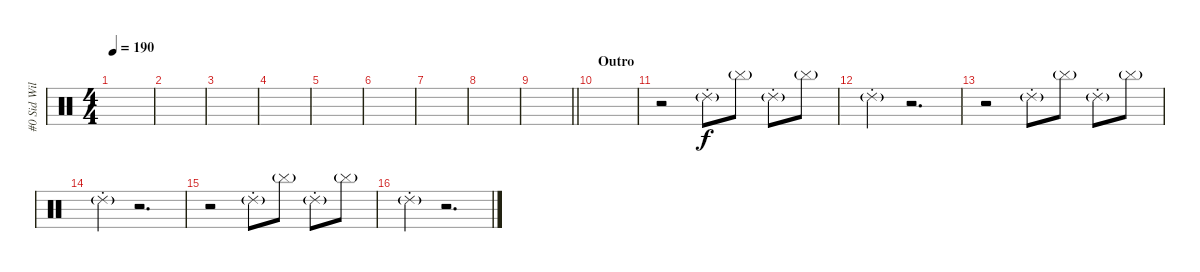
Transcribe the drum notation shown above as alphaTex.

\track ("#0 Sid Wilson" "#0 Sid Wil") {instrument percussion}
\staff {score}
\articulation defaults
\ts (4 4)
\tempo 190
\clef neutral
\ks c
|
|
|
|
|
|
|
|
\barLineRight lightlight
|
\section ("" "Outro")
|
r.2 "Ride (choke) 2"{g}.8 "Cymbal (hit)"{g}.8 "Ride (choke) 2"{g}.8 "Cymbal (hit)"{g}.8 |
"Ride (choke) 2"{g}.4 r.2{d} |
r.2 "Ride (choke) 2"{g}.8 "Cymbal (hit)"{g}.8 "Ride (choke) 2"{g}.8 "Cymbal (hit)"{g}.8 |
"Ride (choke) 2"{g}.4 r.2{d} |
r.2 "Ride (choke) 2"{g}.8 "Cymbal (hit)"{g}.8 "Ride (choke) 2"{g}.8 "Cymbal (hit)"{g}.8 |
"Ride (choke) 2"{g}.4 r.2{d}
